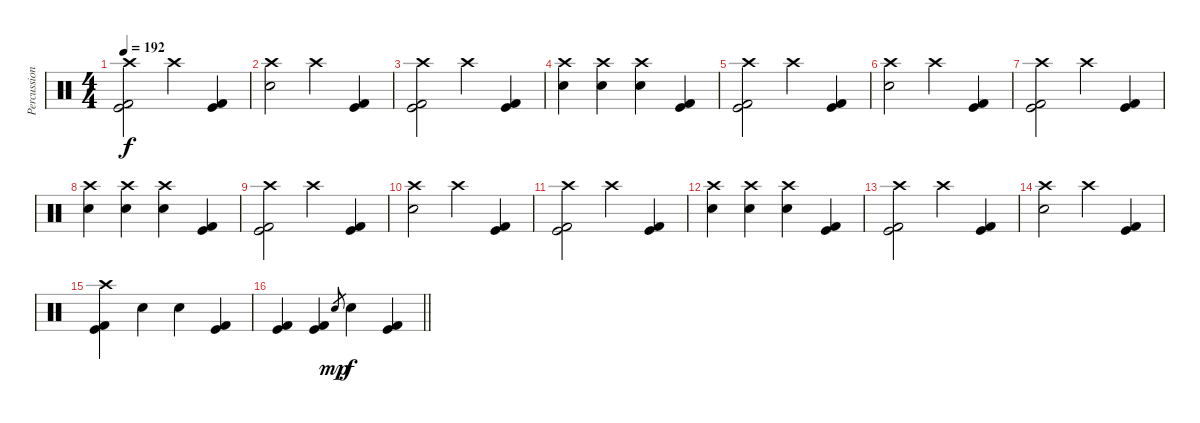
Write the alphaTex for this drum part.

\track ("Percussion" "Percussion") {instrument percussion}
\staff {score}
\articulation defaults
\ts (4 4)
\tempo 192
\clef neutral
\ks c
("Crash high (hit)" "Kick (hit)" "Kick (hit) 2").2{dy f} "Crash high (hit)".4 ("Kick (hit)" "Kick (hit) 2").4 |
("Crash high (hit)" "Electric Snare (hit)").2 "Crash high (hit)".4 ("Kick (hit)" "Kick (hit) 2").4 |
("Crash high (hit)" "Kick (hit)" "Kick (hit) 2").2 "Crash high (hit)".4 ("Kick (hit)" "Kick (hit) 2").4 |
("Crash high (hit)" "Electric Snare (hit)").4 ("Crash high (hit)" "Electric Snare (hit)").4 ("Crash high (hit)" "Electric Snare (hit)").4 ("Kick (hit)" "Kick (hit) 2").4 |
("Crash high (hit)" "Kick (hit)" "Kick (hit) 2").2 "Crash high (hit)".4 ("Kick (hit)" "Kick (hit) 2").4 |
("Crash high (hit)" "Electric Snare (hit)").2 "Crash high (hit)".4 ("Kick (hit)" "Kick (hit) 2").4 |
("Crash high (hit)" "Kick (hit)" "Kick (hit) 2").2 "Crash high (hit)".4 ("Kick (hit)" "Kick (hit) 2").4 |
("Crash high (hit)" "Electric Snare (hit)").4 ("Crash high (hit)" "Electric Snare (hit)").4 ("Crash high (hit)" "Electric Snare (hit)").4 ("Kick (hit)" "Kick (hit) 2").4 |
("Crash high (hit)" "Kick (hit)" "Kick (hit) 2").2 "Crash high (hit)".4 ("Kick (hit)" "Kick (hit) 2").4 |
("Crash high (hit)" "Electric Snare (hit)").2 "Crash high (hit)".4 ("Kick (hit)" "Kick (hit) 2").4 |
("Crash high (hit)" "Kick (hit)" "Kick (hit) 2").2 "Crash high (hit)".4 ("Kick (hit)" "Kick (hit) 2").4 |
("Crash high (hit)" "Electric Snare (hit)").4 ("Crash high (hit)" "Electric Snare (hit)").4 ("Crash high (hit)" "Electric Snare (hit)").4 ("Kick (hit)" "Kick (hit) 2").4 |
("Crash high (hit)" "Kick (hit)" "Kick (hit) 2").2 "Crash high (hit)".4 ("Kick (hit)" "Kick (hit) 2").4 |
("Crash high (hit)" "Electric Snare (hit)").2 "Crash high (hit)".4 ("Kick (hit)" "Kick (hit) 2").4 |
("Crash high (hit)" "Kick (hit)" "Kick (hit) 2").4 "Electric Snare (hit)".4 "Electric Snare (hit)".4 ("Kick (hit)" "Kick (hit) 2").4 |
\barLineRight lightlight
("Kick (hit)" "Kick (hit) 2").4 ("Kick (hit)" "Kick (hit) 2").4 "Electric Snare (hit)".8{gr dy mp} "Electric Snare (hit)".4{dy f} ("Kick (hit)" "Kick (hit) 2").4
